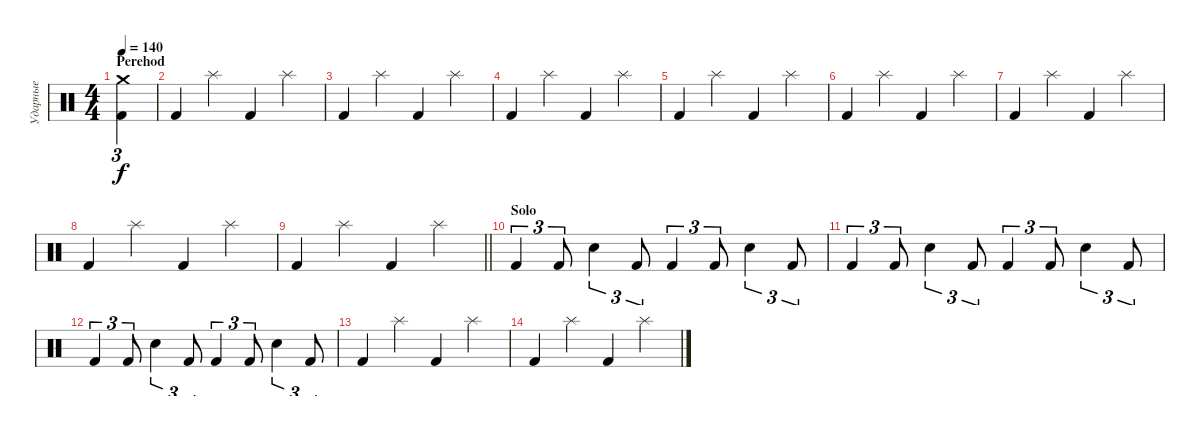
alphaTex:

\track ("Ударные" "Ударные") {instrument percussion}
\staff {score}
\articulation defaults
\ts (4 4)
\section ("" "Perehod")
\tempo 140
\clef neutral
\ks c
("Crash medium (hit)" "Kick (hit) 2").4{tu (3 2) dy f} |
"Kick (hit) 2".4 "Splash (hit)".4 "Kick (hit) 2".4 "Splash (hit)".4 |
"Kick (hit) 2".4 "Splash (hit)".4 "Kick (hit) 2".4 "Splash (hit)".4 |
"Kick (hit) 2".4 "Splash (hit)".4 "Kick (hit) 2".4 "Splash (hit)".4 |
"Kick (hit) 2".4 "Splash (hit)".4 "Kick (hit) 2".4 "Splash (hit)".4 |
"Kick (hit) 2".4 "Splash (hit)".4 "Kick (hit) 2".4 "Splash (hit)".4 |
"Kick (hit) 2".4 "Splash (hit)".4 "Kick (hit) 2".4 "Splash (hit)".4 |
"Kick (hit) 2".4 "Splash (hit)".4 "Kick (hit) 2".4 "Splash (hit)".4 |
\barLineRight lightlight "Kick (hit) 2".4 "Splash (hit)".4 "Kick (hit) 2".4 "Splash (hit)".4
|
\section ("" "Solo")
"Kick (hit) 2".4{tu (3 2)} "Kick (hit) 2".8{tu (3 2)} "Snare (hit) 2".4{tu (3 2)} "Kick (hit) 2".8{tu (3 2)} "Kick (hit) 2".4{tu (3 2)} "Kick (hit) 2".8{tu (3 2)} "Snare (hit) 2".4{tu (3 2)} "Kick (hit) 2".8{tu (3 2)} |
"Kick (hit) 2".4{tu (3 2)} "Kick (hit) 2".8{tu (3 2)} "Snare (hit) 2".4{tu (3 2)} "Kick (hit) 2".8{tu (3 2)} "Kick (hit) 2".4{tu (3 2)} "Kick (hit) 2".8{tu (3 2)} "Snare (hit) 2".4{tu (3 2)} "Kick (hit) 2".8{tu (3 2)} |
"Kick (hit) 2".4{tu (3 2)} "Kick (hit) 2".8{tu (3 2)} "Snare (hit) 2".4{tu (3 2)} "Kick (hit) 2".8{tu (3 2)} "Kick (hit) 2".4{tu (3 2)} "Kick (hit) 2".8{tu (3 2)} "Snare (hit) 2".4{tu (3 2)} "Kick (hit) 2".8{tu (3 2)} |
"Kick (hit) 2".4 "Splash (hit)".4 "Kick (hit) 2".4 "Splash (hit)".4 |
"Kick (hit) 2".4 "Splash (hit)".4 "Kick (hit) 2".4 "Splash (hit)".4
